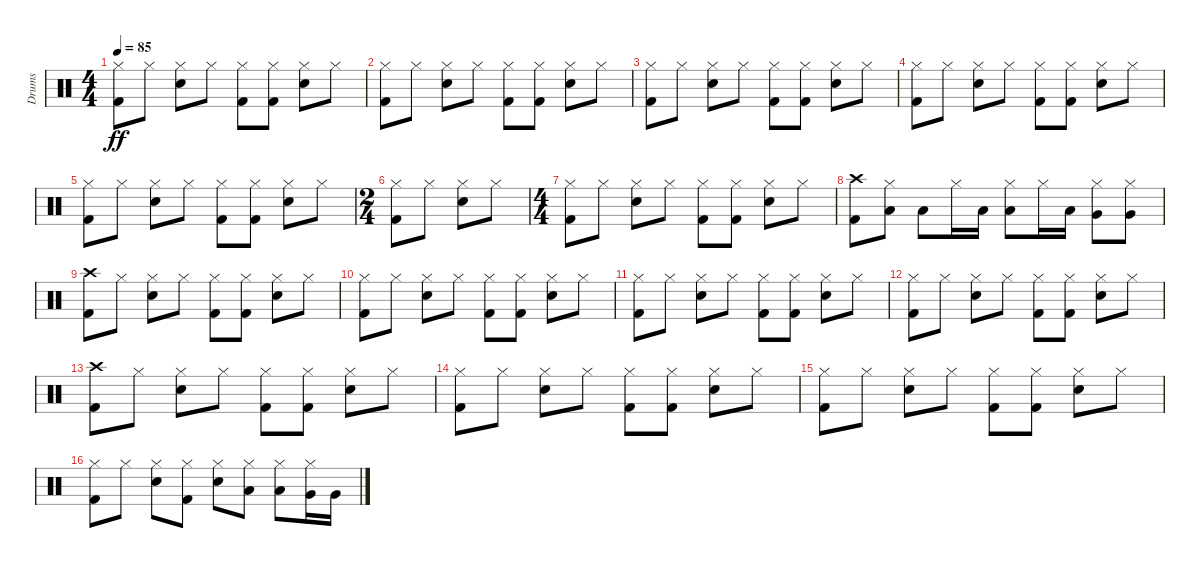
\track ("Drums" "Drums") {instrument percussion}
\staff {score}
\articulation defaults
\ts (4 4)
\tempo 85
\clef neutral
\ks c
("Kick (hit) 2" "Hi-Hat (closed)").8{dy ff} "Hi-Hat (closed)".8 ("Electric Snare (hit)" "Hi-Hat (closed)").8 "Hi-Hat (closed)".8 ("Kick (hit) 2" "Hi-Hat (closed)").8 ("Kick (hit) 2" "Hi-Hat (closed)").8 ("Electric Snare (hit)" "Hi-Hat (closed)").8 "Hi-Hat (closed)".8 |
("Kick (hit) 2" "Hi-Hat (closed)").8 "Hi-Hat (closed)".8 ("Electric Snare (hit)" "Hi-Hat (closed)").8 "Hi-Hat (closed)".8 ("Kick (hit) 2" "Hi-Hat (closed)").8 ("Kick (hit) 2" "Hi-Hat (closed)").8 ("Electric Snare (hit)" "Hi-Hat (closed)").8 "Hi-Hat (closed)".8 |
("Kick (hit) 2" "Hi-Hat (closed)").8 "Hi-Hat (closed)".8 ("Electric Snare (hit)" "Hi-Hat (closed)").8 "Hi-Hat (closed)".8 ("Kick (hit) 2" "Hi-Hat (closed)").8 ("Kick (hit) 2" "Hi-Hat (closed)").8 ("Electric Snare (hit)" "Hi-Hat (closed)").8 "Hi-Hat (closed)".8 |
("Kick (hit) 2" "Hi-Hat (closed)").8 "Hi-Hat (closed)".8 ("Electric Snare (hit)" "Hi-Hat (closed)").8 "Hi-Hat (closed)".8 ("Kick (hit) 2" "Hi-Hat (closed)").8 ("Kick (hit) 2" "Hi-Hat (closed)").8 ("Electric Snare (hit)" "Hi-Hat (closed)").8 "Hi-Hat (closed)".8 |
("Kick (hit) 2" "Hi-Hat (closed)").8 "Hi-Hat (closed)".8 ("Electric Snare (hit)" "Hi-Hat (closed)").8 "Hi-Hat (closed)".8 ("Kick (hit) 2" "Hi-Hat (closed)").8 ("Kick (hit) 2" "Hi-Hat (closed)").8 ("Electric Snare (hit)" "Hi-Hat (closed)").8 "Hi-Hat (closed)".8 |
\ts (2 4)
("Kick (hit) 2" "Hi-Hat (closed)").8 "Hi-Hat (closed)".8 ("Electric Snare (hit)" "Hi-Hat (closed)").8 "Hi-Hat (closed)".8 |
\ts (4 4)
("Kick (hit) 2" "Hi-Hat (closed)").8 "Hi-Hat (closed)".8 ("Electric Snare (hit)" "Hi-Hat (closed)").8 "Hi-Hat (closed)".8 ("Kick (hit) 2" "Hi-Hat (closed)").8 ("Kick (hit) 2" "Hi-Hat (closed)").8 ("Electric Snare (hit)" "Hi-Hat (closed)").8 "Hi-Hat (closed)".8 |
("Kick (hit) 2" "Crash high (hit)").8 ("Hi-Hat (closed)" "Low Tom (hit)").8 "Low Tom (hit)".8 "Hi-Hat (closed)".16 "Low Tom (hit)".16 ("Hi-Hat (closed)" "Low Tom (hit)").8 "Hi-Hat (closed)".16 "Low Tom (hit)".16 ("Hi-Hat (closed)" "Very Low Tom (hit)").8 ("Hi-Hat (closed)" "Very Low Tom (hit)").8 |
("Kick (hit) 2" "Crash high (hit)").8 "Hi-Hat (closed)".8 ("Electric Snare (hit)" "Hi-Hat (closed)").8 "Hi-Hat (closed)".8 ("Kick (hit) 2" "Hi-Hat (closed)").8 ("Kick (hit) 2" "Hi-Hat (closed)").8 ("Electric Snare (hit)" "Hi-Hat (closed)").8 "Hi-Hat (closed)".8 |
("Kick (hit) 2" "Hi-Hat (closed)").8 "Hi-Hat (closed)".8 ("Electric Snare (hit)" "Hi-Hat (closed)").8 "Hi-Hat (closed)".8 ("Kick (hit) 2" "Hi-Hat (closed)").8 ("Kick (hit) 2" "Hi-Hat (closed)").8 ("Electric Snare (hit)" "Hi-Hat (closed)").8 "Hi-Hat (closed)".8 |
("Kick (hit) 2" "Hi-Hat (closed)").8 "Hi-Hat (closed)".8 ("Electric Snare (hit)" "Hi-Hat (closed)").8 "Hi-Hat (closed)".8 ("Kick (hit) 2" "Hi-Hat (closed)").8 ("Kick (hit) 2" "Hi-Hat (closed)").8 ("Electric Snare (hit)" "Hi-Hat (closed)").8 "Hi-Hat (closed)".8 |
("Kick (hit) 2" "Hi-Hat (closed)").8 "Hi-Hat (closed)".8 ("Electric Snare (hit)" "Hi-Hat (closed)").8 "Hi-Hat (closed)".8 ("Kick (hit) 2" "Hi-Hat (closed)").8 ("Kick (hit) 2" "Hi-Hat (closed)").8 ("Electric Snare (hit)" "Hi-Hat (closed)").8 "Hi-Hat (closed)".8 |
("Kick (hit) 2" "Crash high (hit)").8 "Hi-Hat (closed)".8 ("Electric Snare (hit)" "Hi-Hat (closed)").8 "Hi-Hat (closed)".8 ("Kick (hit) 2" "Hi-Hat (closed)").8 ("Kick (hit) 2" "Hi-Hat (closed)").8 ("Electric Snare (hit)" "Hi-Hat (closed)").8 "Hi-Hat (closed)".8 |
("Kick (hit) 2" "Hi-Hat (closed)").8 "Hi-Hat (closed)".8 ("Electric Snare (hit)" "Hi-Hat (closed)").8 "Hi-Hat (closed)".8 ("Kick (hit) 2" "Hi-Hat (closed)").8 ("Kick (hit) 2" "Hi-Hat (closed)").8 ("Electric Snare (hit)" "Hi-Hat (closed)").8 "Hi-Hat (closed)".8 |
("Kick (hit) 2" "Hi-Hat (closed)").8 "Hi-Hat (closed)".8 ("Electric Snare (hit)" "Hi-Hat (closed)").8 "Hi-Hat (closed)".8 ("Kick (hit) 2" "Hi-Hat (closed)").8 ("Kick (hit) 2" "Hi-Hat (closed)").8 ("Electric Snare (hit)" "Hi-Hat (closed)").8 "Hi-Hat (closed)".8 |
("Kick (hit) 2" "Hi-Hat (closed)").8 "Hi-Hat (closed)".8 ("Electric Snare (hit)" "Hi-Hat (closed)").8 ("Kick (hit) 2" "Hi-Hat (closed)").8 ("Electric Snare (hit)" "Hi-Hat (closed)").8 ("Hi-Hat (closed)" "Low Tom (hit)").8 ("Hi-Hat (closed)" "Low Tom (hit)").8 ("Hi-Hat (closed)" "Very Low Tom (hit)").16 "Very Low Tom (hit)".16
